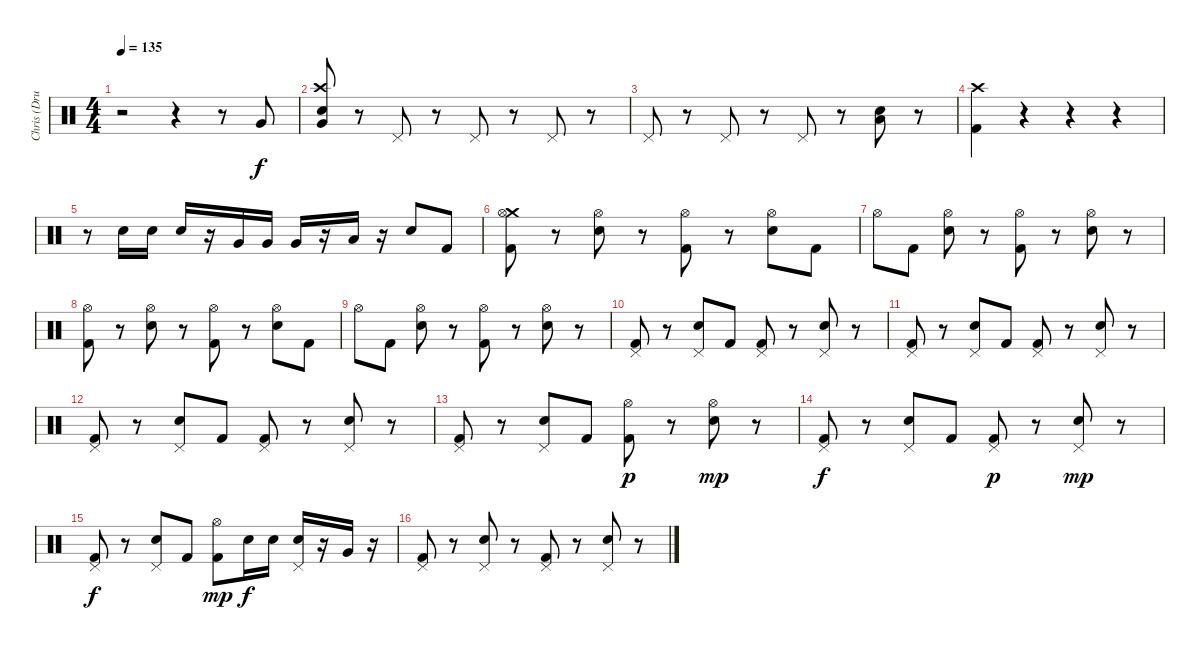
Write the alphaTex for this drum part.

\track ("Chris (Drums)" "Chris (Dru") {instrument percussion}
\staff {score}
\articulation defaults
\ts (4 4)
\tempo 135
\clef neutral
\ks c
r.2{dy f} r.4 r.8 "Very Low Tom (hit)".8 |
("Crash high (hit)" "Very Low Tom (hit)" "Snare (hit) 2").8 r.8 "Pedal Hi-Hat (hit)".8 r.8 "Pedal Hi-Hat (hit)".8 r.8 "Pedal Hi-Hat (hit)".8 r.8 |
"Pedal Hi-Hat (hit)".8 r.8 "Pedal Hi-Hat (hit)".8 r.8 "Pedal Hi-Hat (hit)".8 r.8 ("Snare (hit) 2" "Low Floor Tom (hit)").8 r.8 |
("Crash high (hit)" "Kick (hit) 2").4 r.4 r.4 r.4 |
r.8 "Snare (hit) 2".16 "Snare (hit) 2".16 "Snare (hit) 2".16 r.16 "Very Low Tom (hit)".16 "Very Low Tom (hit)".16 "Very Low Tom (hit)".16 r.16 "Low Floor Tom (hit)".16 r.16 "Snare (hit) 2".8 "Kick (hit) 2".8 |
("Crash medium (hit)" "Hi-Hat (open)" "Kick (hit) 2").8 r.8 ("Hi-Hat (open)" "Snare (hit) 2").8 r.8 ("Hi-Hat (open)" "Kick (hit) 2").8 r.8 ("Hi-Hat (open)" "Snare (hit) 2").8 "Kick (hit) 2".8 |
"Hi-Hat (open)".8 "Kick (hit) 2".8 ("Hi-Hat (open)" "Snare (hit) 2").8 r.8 ("Hi-Hat (open)" "Kick (hit) 2").8 r.8 ("Hi-Hat (open)" "Snare (hit) 2").8 r.8 |
("Hi-Hat (open)" "Kick (hit) 2").8 r.8 ("Hi-Hat (open)" "Snare (hit) 2").8 r.8 ("Hi-Hat (open)" "Kick (hit) 2").8 r.8 ("Hi-Hat (open)" "Snare (hit) 2").8 "Kick (hit) 2".8 |
"Hi-Hat (open)".8 "Kick (hit) 2".8 ("Hi-Hat (open)" "Snare (hit) 2").8 r.8 ("Hi-Hat (open)" "Kick (hit) 2").8 r.8 ("Hi-Hat (open)" "Snare (hit) 2").8 r.8 |
("Pedal Hi-Hat (hit)" "Kick (hit) 2").8 r.8 ("Pedal Hi-Hat (hit)" "Snare (hit) 2").8 "Kick (hit) 2".8 ("Pedal Hi-Hat (hit)" "Kick (hit) 2").8 r.8 ("Pedal Hi-Hat (hit)" "Snare (hit) 2").8 r.8 |
("Pedal Hi-Hat (hit)" "Kick (hit) 2").8 r.8 ("Pedal Hi-Hat (hit)" "Snare (hit) 2").8 "Kick (hit) 2".8 ("Pedal Hi-Hat (hit)" "Kick (hit) 2").8 r.8 ("Pedal Hi-Hat (hit)" "Snare (hit) 2").8 r.8 |
("Pedal Hi-Hat (hit)" "Kick (hit) 2").8 r.8 ("Pedal Hi-Hat (hit)" "Snare (hit) 2").8 "Kick (hit) 2".8 ("Pedal Hi-Hat (hit)" "Kick (hit) 2").8 r.8 ("Pedal Hi-Hat (hit)" "Snare (hit) 2").8 r.8 |
("Pedal Hi-Hat (hit)" "Kick (hit) 2").8 r.8 ("Pedal Hi-Hat (hit)" "Snare (hit) 2").8 "Kick (hit) 2".8 ("Hi-Hat (open)" "Kick (hit) 2").8{dy p} r.8 ("Hi-Hat (open)" "Snare (hit) 2").8{dy mp} r.8 |
("Pedal Hi-Hat (hit)" "Kick (hit) 2").8{dy f} r.8 ("Pedal Hi-Hat (hit)" "Snare (hit) 2").8 "Kick (hit) 2".8 ("Pedal Hi-Hat (hit)" "Kick (hit) 2").8{dy p} r.8 ("Pedal Hi-Hat (hit)" "Snare (hit) 2").8{dy mp} r.8 |
("Pedal Hi-Hat (hit)" "Kick (hit) 2").8{dy f} r.8 ("Pedal Hi-Hat (hit)" "Snare (hit) 2").8 "Kick (hit) 2".8 ("Hi-Hat (open)" "Kick (hit) 2").8{dy mp} "Snare (hit) 2".16{dy f} "Snare (hit) 2".16 ("Pedal Hi-Hat (hit)" "Snare (hit) 2").16 r.16 "Very Low Tom (hit)".16 r.16 |
("Pedal Hi-Hat (hit)" "Kick (hit) 2").8 r.8 ("Pedal Hi-Hat (hit)" "Snare (hit) 2").8 r.8 ("Pedal Hi-Hat (hit)" "Kick (hit) 2").8 r.8 ("Pedal Hi-Hat (hit)" "Snare (hit) 2").8 r.8
